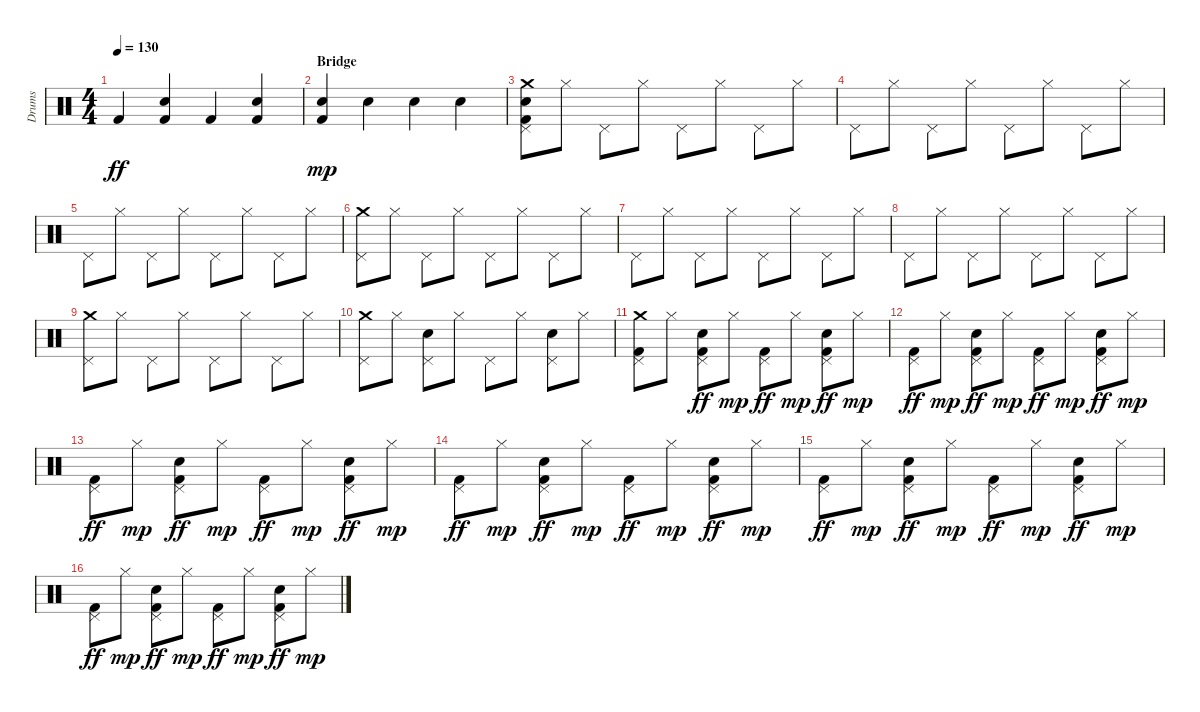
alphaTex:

\track ("Drums" "Drums") {instrument percussion}
\staff {score}
\articulation defaults
\ts (4 4)
\tempo 130
\clef neutral
\ks c "Kick (hit) 2".4{dy ff}
("Electric Snare (hit)" "Kick (hit) 2").4 "Kick (hit) 2".4 ("Electric Snare (hit)" "Kick (hit) 2").4 |
\section ("" "Bridge")
("Kick (hit) 2" "Snare (hit) 2").4{dy mp} "Snare (hit) 2".4 "Snare (hit) 2".4 "Snare (hit) 2".4 |
("Kick (hit) 2" "Snare (hit) 2" "Pedal Hi-Hat (hit)" "Crash medium (hit)").8 "Hi-Hat (closed)".8 "Pedal Hi-Hat (hit)".8 "Hi-Hat (closed)".8 "Pedal Hi-Hat (hit)".8 "Hi-Hat (closed)".8 "Pedal Hi-Hat (hit)".8 "Hi-Hat (closed)".8 |
"Pedal Hi-Hat (hit)".8 "Hi-Hat (closed)".8 "Pedal Hi-Hat (hit)".8 "Hi-Hat (closed)".8 "Pedal Hi-Hat (hit)".8 "Hi-Hat (closed)".8 "Pedal Hi-Hat (hit)".8 "Hi-Hat (closed)".8 |
"Pedal Hi-Hat (hit)".8 "Hi-Hat (closed)".8 "Pedal Hi-Hat (hit)".8 "Hi-Hat (closed)".8 "Pedal Hi-Hat (hit)".8 "Hi-Hat (closed)".8 "Pedal Hi-Hat (hit)".8 "Hi-Hat (closed)".8 |
("Crash medium (hit)" "Pedal Hi-Hat (hit)").8 "Hi-Hat (closed)".8 "Pedal Hi-Hat (hit)".8 "Hi-Hat (closed)".8 "Pedal Hi-Hat (hit)".8 "Hi-Hat (closed)".8 "Pedal Hi-Hat (hit)".8 "Hi-Hat (closed)".8 |
"Pedal Hi-Hat (hit)".8 "Hi-Hat (closed)".8 "Pedal Hi-Hat (hit)".8 "Hi-Hat (closed)".8 "Pedal Hi-Hat (hit)".8 "Hi-Hat (closed)".8 "Pedal Hi-Hat (hit)".8 "Hi-Hat (closed)".8 |
"Pedal Hi-Hat (hit)".8 "Hi-Hat (closed)".8 "Pedal Hi-Hat (hit)".8 "Hi-Hat (closed)".8 "Pedal Hi-Hat (hit)".8 "Hi-Hat (closed)".8 "Pedal Hi-Hat (hit)".8 "Hi-Hat (closed)".8 |
("Crash medium (hit)" "Pedal Hi-Hat (hit)").8 "Hi-Hat (closed)".8 "Pedal Hi-Hat (hit)".8 "Hi-Hat (closed)".8 "Pedal Hi-Hat (hit)".8 "Hi-Hat (closed)".8 "Pedal Hi-Hat (hit)".8 "Hi-Hat (closed)".8 |
("Pedal Hi-Hat (hit)" "Crash medium (hit)").8 "Hi-Hat (closed)".8 ("Electric Snare (hit)" "Pedal Hi-Hat (hit)").8 "Hi-Hat (closed)".8 "Pedal Hi-Hat (hit)".8 "Hi-Hat (closed)".8 ("Electric Snare (hit)" "Pedal Hi-Hat (hit)").8 "Hi-Hat (closed)".8 |
("Pedal Hi-Hat (hit)" "Kick (hit) 2" "Crash medium (hit)").8 "Hi-Hat (closed)".8 ("Electric Snare (hit)" "Pedal Hi-Hat (hit)" "Kick (hit) 2").8{dy ff} "Hi-Hat (closed)".8{dy mp} ("Pedal Hi-Hat (hit)" "Kick (hit) 2").8{dy ff} "Hi-Hat (closed)".8{dy mp} ("Electric Snare (hit)" "Pedal Hi-Hat (hit)" "Kick (hit) 2").8{dy ff} "Hi-Hat (closed)".8{dy mp} |
("Pedal Hi-Hat (hit)" "Kick (hit) 2").8{dy ff} "Hi-Hat (closed)".8{dy mp} ("Electric Snare (hit)" "Pedal Hi-Hat (hit)" "Kick (hit) 2").8{dy ff} "Hi-Hat (closed)".8{dy mp} ("Pedal Hi-Hat (hit)" "Kick (hit) 2").8{dy ff} "Hi-Hat (closed)".8{dy mp} ("Electric Snare (hit)" "Pedal Hi-Hat (hit)" "Kick (hit) 2").8{dy ff} "Hi-Hat (closed)".8{dy mp} |
("Pedal Hi-Hat (hit)" "Kick (hit) 2").8{dy ff} "Hi-Hat (closed)".8{dy mp} ("Electric Snare (hit)" "Pedal Hi-Hat (hit)" "Kick (hit) 2").8{dy ff} "Hi-Hat (closed)".8{dy mp} ("Pedal Hi-Hat (hit)" "Kick (hit) 2").8{dy ff} "Hi-Hat (closed)".8{dy mp} ("Electric Snare (hit)" "Pedal Hi-Hat (hit)" "Kick (hit) 2").8{dy ff} "Hi-Hat (closed)".8{dy mp} |
("Pedal Hi-Hat (hit)" "Kick (hit) 2").8{dy ff} "Hi-Hat (closed)".8{dy mp} ("Electric Snare (hit)" "Pedal Hi-Hat (hit)" "Kick (hit) 2").8{dy ff} "Hi-Hat (closed)".8{dy mp} ("Pedal Hi-Hat (hit)" "Kick (hit) 2").8{dy ff} "Hi-Hat (closed)".8{dy mp} ("Electric Snare (hit)" "Pedal Hi-Hat (hit)" "Kick (hit) 2").8{dy ff} "Hi-Hat (closed)".8{dy mp} |
("Pedal Hi-Hat (hit)" "Kick (hit) 2").8{dy ff} "Hi-Hat (closed)".8{dy mp} ("Electric Snare (hit)" "Pedal Hi-Hat (hit)" "Kick (hit) 2").8{dy ff} "Hi-Hat (closed)".8{dy mp} ("Pedal Hi-Hat (hit)" "Kick (hit) 2").8{dy ff} "Hi-Hat (closed)".8{dy mp} ("Electric Snare (hit)" "Pedal Hi-Hat (hit)" "Kick (hit) 2").8{dy ff} "Hi-Hat (closed)".8{dy mp} |
("Pedal Hi-Hat (hit)" "Kick (hit) 2").8{dy ff} "Hi-Hat (closed)".8{dy mp} ("Electric Snare (hit)" "Pedal Hi-Hat (hit)" "Kick (hit) 2").8{dy ff} "Hi-Hat (closed)".8{dy mp} ("Pedal Hi-Hat (hit)" "Kick (hit) 2").8{dy ff} "Hi-Hat (closed)".8{dy mp} ("Electric Snare (hit)" "Pedal Hi-Hat (hit)" "Kick (hit) 2").8{dy ff} "Hi-Hat (closed)".8{dy mp}
